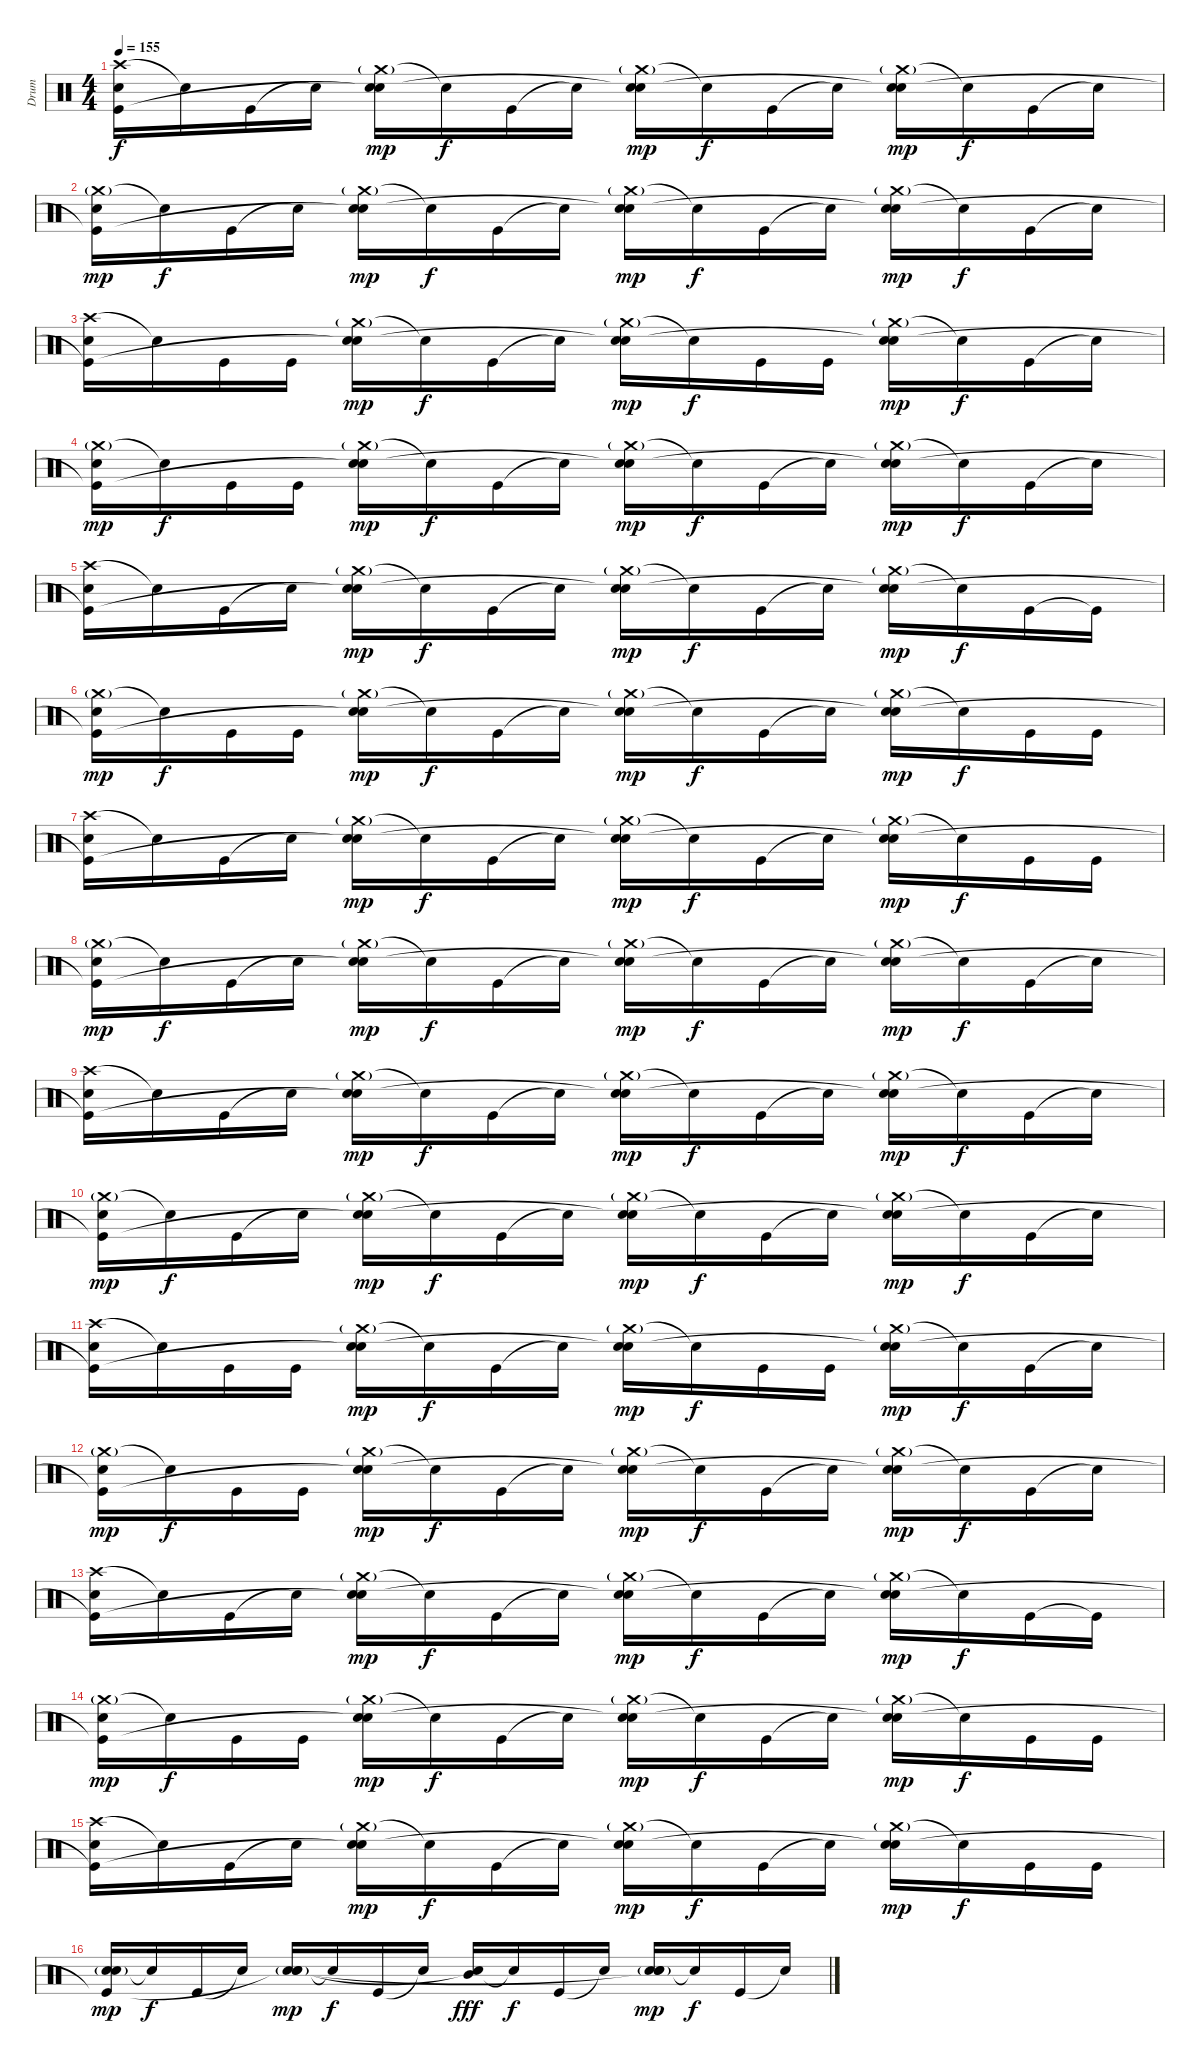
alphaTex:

\track ("Drum" "Drum") {instrument percussion}
\staff {score}
\articulation defaults
\ts (4 4)
\tempo 155
\clef neutral
\ks c
("Crash high (hit)" "Electric Snare (hit)" "Kick (hit)").16{dy f} "Snare (hit)"{t}.16 "Kick (hit)".16 "Snare (hit)"{t}.16 ("Crash medium (hit)"{g} "Electric Snare (hit)" "Snare (hit)"{t}).16{dy mp} "Snare (hit)"{t}.16{dy f} "Kick (hit)".16 "Snare (hit)"{t}.16 ("Crash medium (hit)"{g} "Electric Snare (hit)" "Snare (hit)"{t}).16{dy mp} "Snare (hit)"{t}.16{dy f} "Kick (hit)".16 "Snare (hit)"{t}.16 ("Crash medium (hit)"{g} "Electric Snare (hit)" "Snare (hit)"{t}).16{dy mp} "Snare (hit)"{t}.16{dy f} "Kick (hit)".16 "Snare (hit)"{t}.16 |
("Crash medium (hit)"{g} "Electric Snare (hit)" "Kick (hit)"{t}).16{dy mp} "Snare (hit)"{t}.16{dy f} "Kick (hit)".16 "Snare (hit)"{t}.16 ("Crash medium (hit)"{g} "Electric Snare (hit)" "Snare (hit)"{t}).16{dy mp} "Snare (hit)"{t}.16{dy f} "Kick (hit)".16 "Snare (hit)"{t}.16 ("Crash medium (hit)"{g} "Electric Snare (hit)" "Snare (hit)"{t}).16{dy mp} "Snare (hit)"{t}.16{dy f} "Kick (hit)".16 "Snare (hit)"{t}.16 ("Crash medium (hit)"{g} "Electric Snare (hit)" "Snare (hit)"{t}).16{dy mp} "Snare (hit)"{t}.16{dy f} "Kick (hit)".16 "Snare (hit)"{t}.16 |
("Crash high (hit)" "Electric Snare (hit)" "Kick (hit)"{t}).16 "Snare (hit)"{t}.16 "Kick (hit)".16 "Kick (hit)".16 ("Crash medium (hit)"{g} "Electric Snare (hit)" "Snare (hit)"{t}).16{dy mp} "Snare (hit)"{t}.16{dy f} "Kick (hit)".16 "Snare (hit)"{t}.16 ("Crash medium (hit)"{g} "Electric Snare (hit)" "Snare (hit)"{t}).16{dy mp} "Snare (hit)"{t}.16{dy f} "Kick (hit)".16 "Kick (hit)".16 ("Crash medium (hit)"{g} "Electric Snare (hit)" "Snare (hit)"{t}).16{dy mp} "Snare (hit)"{t}.16{dy f} "Kick (hit)".16 "Snare (hit)"{t}.16 |
("Crash medium (hit)"{g} "Electric Snare (hit)" "Kick (hit)"{t}).16{dy mp} "Snare (hit)"{t}.16{dy f} "Kick (hit)".16 "Kick (hit)".16 ("Crash medium (hit)"{g} "Electric Snare (hit)" "Snare (hit)"{t}).16{dy mp} "Snare (hit)"{t}.16{dy f} "Kick (hit)".16 "Snare (hit)"{t}.16 ("Crash medium (hit)"{g} "Electric Snare (hit)" "Snare (hit)"{t}).16{dy mp} "Snare (hit)"{t}.16{dy f} "Kick (hit)".16 "Snare (hit)"{t}.16 ("Crash medium (hit)"{g} "Electric Snare (hit)" "Snare (hit)"{t}).16{dy mp} "Snare (hit)"{t}.16{dy f} "Kick (hit)".16 "Snare (hit)"{t}.16 |
("Crash high (hit)" "Electric Snare (hit)" "Kick (hit)"{t}).16 "Snare (hit)"{t}.16 "Kick (hit)".16 "Snare (hit)"{t}.16 ("Crash medium (hit)"{g} "Electric Snare (hit)" "Snare (hit)"{t}).16{dy mp} "Snare (hit)"{t}.16{dy f} "Kick (hit)".16 "Snare (hit)"{t}.16 ("Crash medium (hit)"{g} "Electric Snare (hit)" "Snare (hit)"{t}).16{dy mp} "Snare (hit)"{t}.16{dy f} "Kick (hit)".16 "Snare (hit)"{t}.16 ("Crash medium (hit)"{g} "Electric Snare (hit)" "Snare (hit)"{t}).16{dy mp} "Snare (hit)"{t}.16{dy f} "Kick (hit)".16 "Kick (hit)"{t}.16 |
("Crash medium (hit)"{g} "Electric Snare (hit)" "Kick (hit)"{t}).16{dy mp} "Snare (hit)"{t}.16{dy f} "Kick (hit)".16 "Kick (hit)".16 ("Crash medium (hit)"{g} "Electric Snare (hit)" "Snare (hit)"{t}).16{dy mp} "Snare (hit)"{t}.16{dy f} "Kick (hit)".16 "Snare (hit)"{t}.16 ("Crash medium (hit)"{g} "Electric Snare (hit)" "Snare (hit)"{t}).16{dy mp} "Snare (hit)"{t}.16{dy f} "Kick (hit)".16 "Snare (hit)"{t}.16 ("Crash medium (hit)"{g} "Electric Snare (hit)" "Snare (hit)"{t}).16{dy mp} "Snare (hit)"{t}.16{dy f} "Kick (hit)".16 "Kick (hit)".16 |
("Crash high (hit)" "Electric Snare (hit)" "Kick (hit)"{t}).16 "Snare (hit)"{t}.16 "Kick (hit)".16 "Snare (hit)"{t}.16 ("Crash medium (hit)"{g} "Electric Snare (hit)" "Snare (hit)"{t}).16{dy mp} "Snare (hit)"{t}.16{dy f} "Kick (hit)".16 "Snare (hit)"{t}.16 ("Crash medium (hit)"{g} "Electric Snare (hit)" "Snare (hit)"{t}).16{dy mp} "Snare (hit)"{t}.16{dy f} "Kick (hit)".16 "Snare (hit)"{t}.16 ("Crash medium (hit)"{g} "Electric Snare (hit)" "Snare (hit)"{t}).16{dy mp} "Snare (hit)"{t}.16{dy f} "Kick (hit)".16 "Kick (hit)".16 |
("Crash medium (hit)"{g} "Electric Snare (hit)" "Kick (hit)"{t}).16{dy mp} "Snare (hit)"{t}.16{dy f} "Kick (hit)".16 "Snare (hit)"{t}.16 ("Crash medium (hit)"{g} "Electric Snare (hit)" "Snare (hit)"{t}).16{dy mp} "Snare (hit)"{t}.16{dy f} "Kick (hit)".16 "Snare (hit)"{t}.16 ("Crash medium (hit)"{g} "Electric Snare (hit)" "Snare (hit)"{t}).16{dy mp} "Snare (hit)"{t}.16{dy f} "Kick (hit)".16 "Snare (hit)"{t}.16 ("Crash medium (hit)"{g} "Electric Snare (hit)" "Snare (hit)"{t}).16{dy mp} "Snare (hit)"{t}.16{dy f} "Kick (hit)".16 "Snare (hit)"{t}.16 |
("Crash high (hit)" "Electric Snare (hit)" "Kick (hit)"{t}).16 "Snare (hit)"{t}.16 "Kick (hit)".16 "Snare (hit)"{t}.16 ("Crash medium (hit)"{g} "Electric Snare (hit)" "Snare (hit)"{t}).16{dy mp} "Snare (hit)"{t}.16{dy f} "Kick (hit)".16 "Snare (hit)"{t}.16 ("Crash medium (hit)"{g} "Electric Snare (hit)" "Snare (hit)"{t}).16{dy mp} "Snare (hit)"{t}.16{dy f} "Kick (hit)".16 "Snare (hit)"{t}.16 ("Crash medium (hit)"{g} "Electric Snare (hit)" "Snare (hit)"{t}).16{dy mp} "Snare (hit)"{t}.16{dy f} "Kick (hit)".16 "Snare (hit)"{t}.16 |
("Crash medium (hit)"{g} "Electric Snare (hit)" "Kick (hit)"{t}).16{dy mp} "Snare (hit)"{t}.16{dy f} "Kick (hit)".16 "Snare (hit)"{t}.16 ("Crash medium (hit)"{g} "Electric Snare (hit)" "Snare (hit)"{t}).16{dy mp} "Snare (hit)"{t}.16{dy f} "Kick (hit)".16 "Snare (hit)"{t}.16 ("Crash medium (hit)"{g} "Electric Snare (hit)" "Snare (hit)"{t}).16{dy mp} "Snare (hit)"{t}.16{dy f} "Kick (hit)".16 "Snare (hit)"{t}.16 ("Crash medium (hit)"{g} "Electric Snare (hit)" "Snare (hit)"{t}).16{dy mp} "Snare (hit)"{t}.16{dy f} "Kick (hit)".16 "Snare (hit)"{t}.16 |
("Crash high (hit)" "Electric Snare (hit)" "Kick (hit)"{t}).16 "Snare (hit)"{t}.16 "Kick (hit)".16 "Kick (hit)".16 ("Crash medium (hit)"{g} "Electric Snare (hit)" "Snare (hit)"{t}).16{dy mp} "Snare (hit)"{t}.16{dy f} "Kick (hit)".16 "Snare (hit)"{t}.16 ("Crash medium (hit)"{g} "Electric Snare (hit)" "Snare (hit)"{t}).16{dy mp} "Snare (hit)"{t}.16{dy f} "Kick (hit)".16 "Kick (hit)".16 ("Crash medium (hit)"{g} "Electric Snare (hit)" "Snare (hit)"{t}).16{dy mp} "Snare (hit)"{t}.16{dy f} "Kick (hit)".16 "Snare (hit)"{t}.16 |
("Crash medium (hit)"{g} "Electric Snare (hit)" "Kick (hit)"{t}).16{dy mp} "Snare (hit)"{t}.16{dy f} "Kick (hit)".16 "Kick (hit)".16 ("Crash medium (hit)"{g} "Electric Snare (hit)" "Snare (hit)"{t}).16{dy mp} "Snare (hit)"{t}.16{dy f} "Kick (hit)".16 "Snare (hit)"{t}.16 ("Crash medium (hit)"{g} "Electric Snare (hit)" "Snare (hit)"{t}).16{dy mp} "Snare (hit)"{t}.16{dy f} "Kick (hit)".16 "Snare (hit)"{t}.16 ("Crash medium (hit)"{g} "Electric Snare (hit)" "Snare (hit)"{t}).16{dy mp} "Snare (hit)"{t}.16{dy f} "Kick (hit)".16 "Snare (hit)"{t}.16 |
("Crash high (hit)" "Electric Snare (hit)" "Kick (hit)"{t}).16 "Snare (hit)"{t}.16 "Kick (hit)".16 "Snare (hit)"{t}.16 ("Crash medium (hit)"{g} "Electric Snare (hit)" "Snare (hit)"{t}).16{dy mp} "Snare (hit)"{t}.16{dy f} "Kick (hit)".16 "Snare (hit)"{t}.16 ("Crash medium (hit)"{g} "Electric Snare (hit)" "Snare (hit)"{t}).16{dy mp} "Snare (hit)"{t}.16{dy f} "Kick (hit)".16 "Snare (hit)"{t}.16 ("Crash medium (hit)"{g} "Electric Snare (hit)" "Snare (hit)"{t}).16{dy mp} "Snare (hit)"{t}.16{dy f} "Kick (hit)".16 "Kick (hit)"{t}.16 |
("Crash medium (hit)"{g} "Electric Snare (hit)" "Kick (hit)"{t}).16{dy mp} "Snare (hit)"{t}.16{dy f} "Kick (hit)".16 "Kick (hit)".16 ("Crash medium (hit)"{g} "Electric Snare (hit)" "Snare (hit)"{t}).16{dy mp} "Snare (hit)"{t}.16{dy f} "Kick (hit)".16 "Snare (hit)"{t}.16 ("Crash medium (hit)"{g} "Electric Snare (hit)" "Snare (hit)"{t}).16{dy mp} "Snare (hit)"{t}.16{dy f} "Kick (hit)".16 "Snare (hit)"{t}.16 ("Crash medium (hit)"{g} "Electric Snare (hit)" "Snare (hit)"{t}).16{dy mp} "Snare (hit)"{t}.16{dy f} "Kick (hit)".16 "Kick (hit)".16 |
("Crash high (hit)" "Electric Snare (hit)" "Kick (hit)"{t}).16 "Snare (hit)"{t}.16 "Kick (hit)".16 "Snare (hit)"{t}.16 ("Crash medium (hit)"{g} "Electric Snare (hit)" "Snare (hit)"{t}).16{dy mp} "Snare (hit)"{t}.16{dy f} "Kick (hit)".16 "Snare (hit)"{t}.16 ("Crash medium (hit)"{g} "Electric Snare (hit)" "Snare (hit)"{t}).16{dy mp} "Snare (hit)"{t}.16{dy f} "Kick (hit)".16 "Snare (hit)"{t}.16 ("Crash medium (hit)"{g} "Electric Snare (hit)" "Snare (hit)"{t}).16{dy mp} "Snare (hit)"{t}.16{dy f} "Kick (hit)".16 "Kick (hit)".16 |
("Electric Snare (hit)"{g} "Electric Snare (hit)" "Kick (hit)"{t}).16{bd 480 dy mp} "Snare (hit)"{t}.16{dy f} "Kick (hit)".16 "Snare (hit)"{t}.16 ("Electric Snare (hit)"{g} "Electric Snare (hit)" "Snare (hit)"{t}).16{bd 480 dy mp} "Snare (hit)"{t}.16{dy f} "Kick (hit)".16 "Snare (hit)"{t}.16 ("Mid Tom (hit)" "Snare (hit)"{t}).16{dy fff} "Snare (hit)"{t}.16{dy f} "Kick (hit)".16 "Snare (hit)"{t}.16 ("Electric Snare (hit)"{g} "Electric Snare (hit)" "Snare (hit)"{t}).16{bd 480 dy mp} "Snare (hit)"{t}.16{dy f} "Kick (hit)".16 "Snare (hit)"{t}.16
